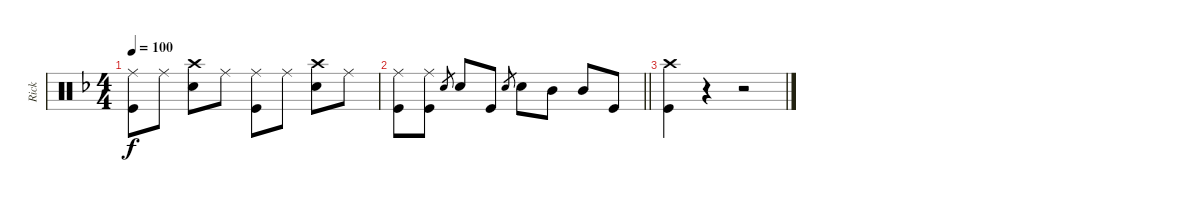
\track ("Rick" "Rick") {instrument percussion}
\staff {score}
\articulation defaults
\ts (4 4)
\tempo 100
\clef neutral
\ks dminor
("Ride (middle)" "Kick (hit)").8{dy f} "Ride (middle)".8 ("Crash high (hit)" "Snare (hit) 2").8 "Ride (middle)".8 ("Ride (middle)" "Kick (hit)").8 "Ride (middle)".8 ("Crash high (hit)" "Snare (hit) 2").8 "Ride (middle)".8 |
\barLineRight lightlight
("Ride (middle)" "Kick (hit)").8 ("Ride (middle)" "Kick (hit)").8 "Snare (hit) 2".8{gr} "Snare (hit) 2".8 "Kick (hit)".8 "Snare (hit) 2".8{gr} "Snare (hit) 2".8 "Mid Tom (hit)".8 "Mid Tom (hit)".8 "Kick (hit)".8 |
("Crash high (hit)" "Kick (hit)").4 r.4 r.2
